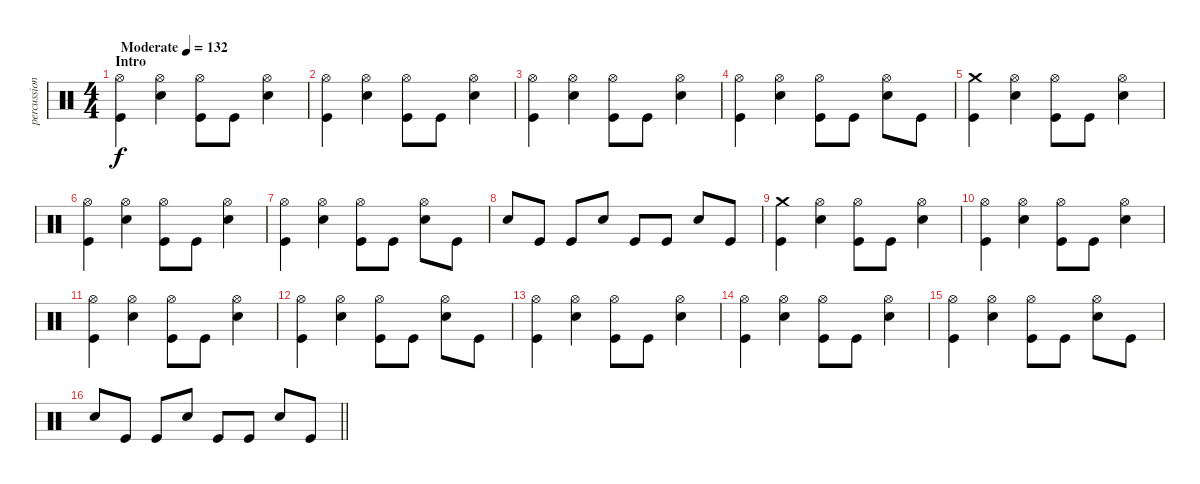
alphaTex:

\track ("percussion" "percussion") {instrument percussion}
\staff {score}
\articulation defaults
\ts (4 4)
\section ("" "Intro")
\tempo (132 "Moderate")
\clef neutral
\ks c
("Hi-Hat (open)" "Kick (hit)").4{dy f} ("Snare (hit) 2" "Hi-Hat (open)").4 ("Hi-Hat (open)" "Kick (hit)").8 "Kick (hit)".8 ("Snare (hit) 2" "Hi-Hat (open)").4 |
("Hi-Hat (open)" "Kick (hit)").4 ("Snare (hit) 2" "Hi-Hat (open)").4 ("Hi-Hat (open)" "Kick (hit)").8 "Kick (hit)".8 ("Snare (hit) 2" "Hi-Hat (open)").4 |
("Hi-Hat (open)" "Kick (hit)").4 ("Snare (hit) 2" "Hi-Hat (open)").4 ("Hi-Hat (open)" "Kick (hit)").8 "Kick (hit)".8 ("Snare (hit) 2" "Hi-Hat (open)").4 |
("Hi-Hat (open)" "Kick (hit)").4 ("Snare (hit) 2" "Hi-Hat (open)").4 ("Hi-Hat (open)" "Kick (hit)").8 "Kick (hit)".8 ("Snare (hit) 2" "Hi-Hat (open)").8 "Kick (hit)".8 |
("Crash medium (hit)" "Kick (hit)").4 ("Snare (hit) 2" "Hi-Hat (open)").4 ("Hi-Hat (open)" "Kick (hit)").8 "Kick (hit)".8 ("Snare (hit) 2" "Hi-Hat (open)").4 |
("Hi-Hat (open)" "Kick (hit)").4 ("Snare (hit) 2" "Hi-Hat (open)").4 ("Hi-Hat (open)" "Kick (hit)").8 "Kick (hit)".8 ("Snare (hit) 2" "Hi-Hat (open)").4 |
("Hi-Hat (open)" "Kick (hit)").4 ("Snare (hit) 2" "Hi-Hat (open)").4 ("Hi-Hat (open)" "Kick (hit)").8 "Kick (hit)".8 ("Snare (hit) 2" "Hi-Hat (open)").8 "Kick (hit)".8 |
"Snare (hit) 2".8 "Kick (hit)".8 "Kick (hit)".8 "Snare (hit) 2".8 "Kick (hit)".8 "Kick (hit)".8 "Snare (hit) 2".8 "Kick (hit)".8 |
("Crash medium (hit)" "Kick (hit)").4 ("Snare (hit) 2" "Hi-Hat (open)").4 ("Hi-Hat (open)" "Kick (hit)").8 "Kick (hit)".8 ("Snare (hit) 2" "Hi-Hat (open)").4 |
("Hi-Hat (open)" "Kick (hit)").4 ("Snare (hit) 2" "Hi-Hat (open)").4 ("Hi-Hat (open)" "Kick (hit)").8 "Kick (hit)".8 ("Snare (hit) 2" "Hi-Hat (open)").4 |
("Hi-Hat (open)" "Kick (hit)").4 ("Snare (hit) 2" "Hi-Hat (open)").4 ("Hi-Hat (open)" "Kick (hit)").8 "Kick (hit)".8 ("Snare (hit) 2" "Hi-Hat (open)").4 |
("Hi-Hat (open)" "Kick (hit)").4 ("Snare (hit) 2" "Hi-Hat (open)").4 ("Hi-Hat (open)" "Kick (hit)").8 "Kick (hit)".8 ("Snare (hit) 2" "Hi-Hat (open)").8 "Kick (hit)".8 |
("Hi-Hat (open)" "Kick (hit)").4 ("Snare (hit) 2" "Hi-Hat (open)").4 ("Hi-Hat (open)" "Kick (hit)").8 "Kick (hit)".8 ("Snare (hit) 2" "Hi-Hat (open)").4 |
("Hi-Hat (open)" "Kick (hit)").4 ("Snare (hit) 2" "Hi-Hat (open)").4 ("Hi-Hat (open)" "Kick (hit)").8 "Kick (hit)".8 ("Snare (hit) 2" "Hi-Hat (open)").4 |
("Hi-Hat (open)" "Kick (hit)").4 ("Snare (hit) 2" "Hi-Hat (open)").4 ("Hi-Hat (open)" "Kick (hit)").8 "Kick (hit)".8 ("Snare (hit) 2" "Hi-Hat (open)").8 "Kick (hit)".8 |
\barLineRight lightlight "Snare (hit) 2".8 "Kick (hit)".8 "Kick (hit)".8 "Snare (hit) 2".8 "Kick (hit)".8 "Kick (hit)".8 "Snare (hit) 2".8 "Kick (hit)".8
